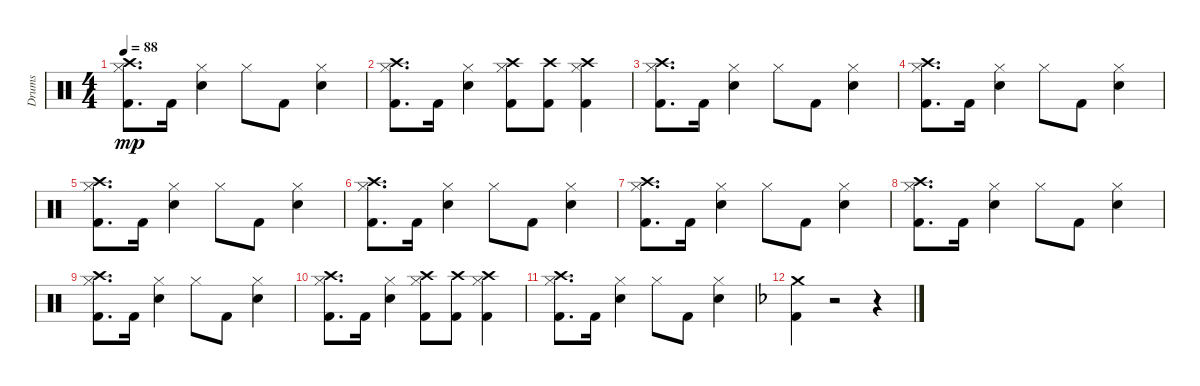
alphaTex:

\track ("Drums" "Drums") {instrument percussion}
\staff {score}
\articulation defaults
\ts (4 4)
\tempo 88
\clef neutral
\ks c
("Hi-Hat (closed)" "Kick (hit) 2" "Crash high (hit)").8{d dy mp} "Kick (hit) 2".16 ("Snare (hit) 2" "Hi-Hat (closed)").4 "Hi-Hat (closed)".8 "Kick (hit) 2".8 ("Snare (hit) 2" "Hi-Hat (closed)").4 |
("Crash high (hit)" "Hi-Hat (closed)" "Kick (hit) 2").8{d} "Kick (hit) 2".16 ("Snare (hit) 2" "Hi-Hat (closed)").4 ("Hi-Hat (closed)" "Kick (hit) 2" "Crash high (hit)").8 ("Kick (hit) 2" "Crash high (hit)").8 ("Hi-Hat (closed)" "Crash high (hit)" "Kick (hit) 2").4 |
("Crash high (hit)" "Hi-Hat (closed)" "Kick (hit) 2").8{d} "Kick (hit) 2".16 ("Snare (hit) 2" "Hi-Hat (closed)").4 "Hi-Hat (closed)".8 "Kick (hit) 2".8 ("Snare (hit) 2" "Hi-Hat (closed)").4 |
("Hi-Hat (closed)" "Kick (hit) 2" "Crash high (hit)").8{d} "Kick (hit) 2".16 ("Snare (hit) 2" "Hi-Hat (closed)").4 "Hi-Hat (closed)".8 "Kick (hit) 2".8 ("Snare (hit) 2" "Hi-Hat (closed)").4 |
("Hi-Hat (closed)" "Kick (hit) 2" "Crash high (hit)").8{d} "Kick (hit) 2".16 ("Snare (hit) 2" "Hi-Hat (closed)").4 "Hi-Hat (closed)".8 "Kick (hit) 2".8 ("Snare (hit) 2" "Hi-Hat (closed)").4 |
("Hi-Hat (closed)" "Kick (hit) 2" "Crash high (hit)").8{d} "Kick (hit) 2".16 ("Snare (hit) 2" "Hi-Hat (closed)").4 "Hi-Hat (closed)".8 "Kick (hit) 2".8 ("Snare (hit) 2" "Hi-Hat (closed)").4 |
("Hi-Hat (closed)" "Kick (hit) 2" "Crash high (hit)").8{d} "Kick (hit) 2".16 ("Snare (hit) 2" "Hi-Hat (closed)").4 "Hi-Hat (closed)".8 "Kick (hit) 2".8 ("Snare (hit) 2" "Hi-Hat (closed)").4 |
("Hi-Hat (closed)" "Kick (hit) 2" "Crash high (hit)").8{d} "Kick (hit) 2".16 ("Snare (hit) 2" "Hi-Hat (closed)").4 "Hi-Hat (closed)".8 "Kick (hit) 2".8 ("Snare (hit) 2" "Hi-Hat (closed)").4 |
("Hi-Hat (closed)" "Kick (hit) 2" "Crash high (hit)").8{d} "Kick (hit) 2".16 ("Snare (hit) 2" "Hi-Hat (closed)").4 "Hi-Hat (closed)".8 "Kick (hit) 2".8 ("Snare (hit) 2" "Hi-Hat (closed)").4 |
("Crash high (hit)" "Hi-Hat (closed)" "Kick (hit) 2").8{d} "Kick (hit) 2".16 ("Snare (hit) 2" "Hi-Hat (closed)").4 ("Hi-Hat (closed)" "Kick (hit) 2" "Crash high (hit)").8 ("Kick (hit) 2" "Crash high (hit)").8 ("Hi-Hat (closed)" "Crash high (hit)" "Kick (hit) 2").4 |
("Crash high (hit)" "Hi-Hat (closed)" "Kick (hit) 2").8{d} "Kick (hit) 2".16 ("Snare (hit) 2" "Hi-Hat (closed)").4 "Hi-Hat (closed)".8 "Kick (hit) 2".8 ("Snare (hit) 2" "Hi-Hat (closed)").4 |
\ks f
("Kick (hit) 2" "Crash medium (hit)").4 r.2 r.4
